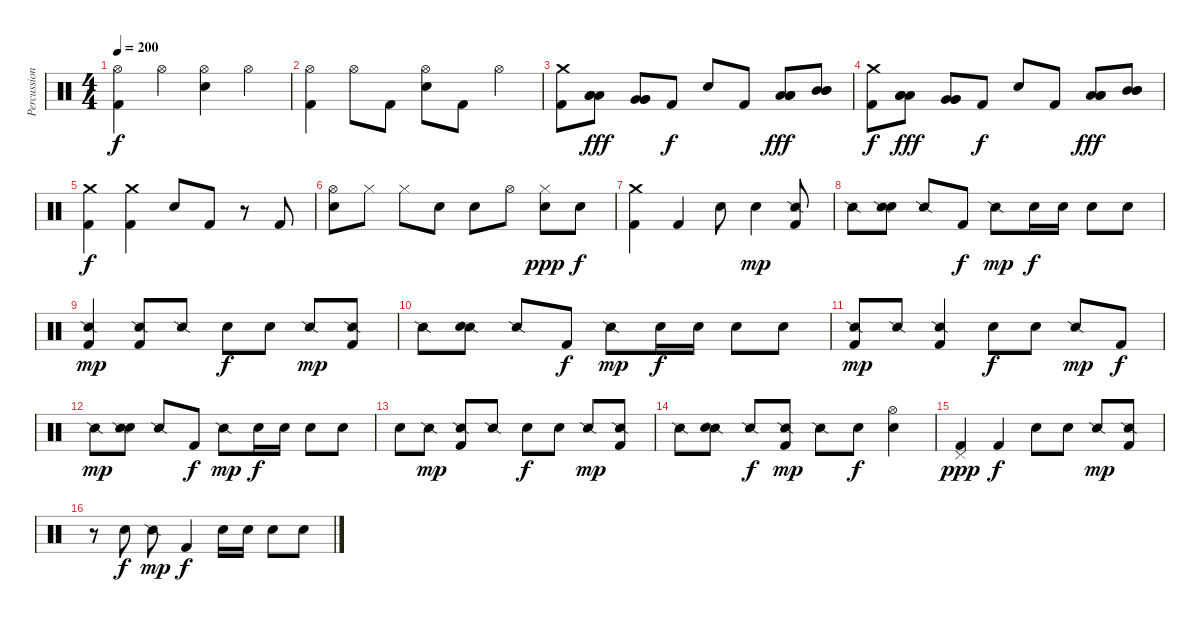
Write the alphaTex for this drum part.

\track ("Percussion" "Percussion") {instrument percussion}
\staff {score}
\articulation defaults
\ts (4 4)
\tempo 200
\clef neutral
\ks c
("Hi-Hat (open)" "Kick (hit) 2").4{dy f volume 15 balance 8} "Hi-Hat (open)".4 ("Hi-Hat (open)" "Electric Snare (hit)").4 "Hi-Hat (open)".4 |
("Hi-Hat (open)" "Kick (hit) 2").4 "Hi-Hat (open)".8 "Kick (hit) 2".8 ("Hi-Hat (open)" "Electric Snare (hit)").8 "Kick (hit) 2".8 "Hi-Hat (open)".4 |
("Crash medium (hit)" "Kick (hit) 2").8 ("Low Tom (hit)" "Low Tom (hit)" "Low Tom (hit)").8{dy fff balance 12} ("Very Low Tom (hit)" "Very Low Tom (hit)" "Very Low Tom (hit)").8{balance 4} "Kick (hit) 2".8{dy f balance 8} "Electric Snare (hit)".8 "Kick (hit) 2".8 ("Low Tom (hit)" "Low Tom (hit)" "Low Tom (hit)").8{dy fff balance 12} ("Mid Tom (hit)" "Mid Tom (hit)" "Mid Tom (hit)").8{balance 14} |
("Crash medium (hit)" "Kick (hit) 2").8{dy f} ("Low Tom (hit)" "Low Tom (hit)" "Low Tom (hit)").8{dy fff balance 12} ("Very Low Tom (hit)" "Very Low Tom (hit)" "Very Low Tom (hit)").8{balance 4} "Kick (hit) 2".8{dy f balance 8} "Electric Snare (hit)".8 "Kick (hit) 2".8 ("Low Tom (hit)" "Low Tom (hit)" "Low Tom (hit)").8{dy fff balance 12} ("Mid Tom (hit)" "Mid Tom (hit)" "Mid Tom (hit)").8{balance 14} |
("Crash medium (hit)" "Kick (hit) 2").4{dy f balance 8} ("Crash medium (hit)" "Kick (hit) 2").4 "Electric Snare (hit)".8 "Kick (hit) 2".8 r.8 "Kick (hit) 2".8 |
("Hi-Hat (open)" "Electric Snare (hit)").8 "Hi-Hat (closed)".8 "Hi-Hat (closed)".8 "Electric Snare (hit)".8 "Electric Snare (hit)".8 "Hi-Hat (open)".8 ("Hi-Hat (closed)" "Electric Snare (hit)").8{dy ppp} "Electric Snare (hit)".8{dy f} |
("Crash medium (hit)" "Kick (hit) 2").4 "Kick (hit) 2".4 "Electric Snare (hit)".8 "Electric Snare (hit)".4{dy mp} ("Snare (side stick) 2" "Kick (hit) 2").8 |
"Snare (side stick) 2".8 ("Electric Snare (hit)" "Snare (side stick) 2").8 "Snare (side stick) 2".8 "Kick (hit) 2".8{dy f} "Snare (side stick) 2".8{dy mp} "Electric Snare (hit)".16{dy f} "Electric Snare (hit)".16 "Electric Snare (hit)".8 "Electric Snare (hit)".8 |
("Snare (side stick) 2" "Kick (hit) 2").4{dy mp} ("Snare (side stick) 2" "Kick (hit) 2").8 "Snare (side stick) 2".8 "Electric Snare (hit)".8{dy f} "Electric Snare (hit)".8 "Snare (side stick) 2".8{dy mp} ("Kick (hit) 2" "Snare (side stick) 2").8 |
"Snare (side stick) 2".8 ("Snare (side stick) 2" "Electric Snare (hit)").8 "Snare (side stick) 2".8 "Kick (hit) 2".8{dy f} "Snare (side stick) 2".8{dy mp} "Electric Snare (hit)".16{dy f} "Electric Snare (hit)".16 "Electric Snare (hit)".8 "Electric Snare (hit)".8 |
("Snare (side stick) 2" "Kick (hit) 2").8{dy mp} "Snare (side stick) 2".8 ("Snare (side stick) 2" "Kick (hit) 2").4 "Electric Snare (hit)".8{dy f} "Electric Snare (hit)".8 "Snare (side stick) 2".8{dy mp} "Kick (hit) 2".8{dy f} |
"Snare (side stick) 2".8{dy mp} ("Electric Snare (hit)" "Snare (side stick) 2").8 "Snare (side stick) 2".8 "Kick (hit) 2".8{dy f} "Snare (side stick) 2".8{dy mp} "Electric Snare (hit)".16{dy f} "Electric Snare (hit)".16 "Electric Snare (hit)".8 "Electric Snare (hit)".8 |
"Electric Snare (hit)".8 "Snare (side stick) 2".8{dy mp} ("Snare (side stick) 2" "Kick (hit) 2").8 "Snare (side stick) 2".8 "Electric Snare (hit)".8{dy f} "Electric Snare (hit)".8 "Snare (side stick) 2".8{dy mp} ("Snare (side stick) 2" "Kick (hit) 2").8 |
"Snare (side stick) 2".8 ("Snare (side stick) 2" "Electric Snare (hit)").8 "Snare (side stick) 2".8{dy f} ("Snare (side stick) 2" "Kick (hit) 2").8{dy mp} "Snare (side stick) 2".8 "Electric Snare (hit)".8{dy f} ("Electric Snare (hit)" "Hi-Hat (open)").4 |
("Pedal Hi-Hat (hit)" "Kick (hit) 2").4{dy ppp} "Kick (hit) 2".4{dy f} "Electric Snare (hit)".8 "Electric Snare (hit)".8 "Snare (side stick) 2".8{dy mp} ("Kick (hit) 2" "Snare (side stick) 2").8 |
r.8 "Electric Snare (hit)".8{dy f} "Snare (side stick) 2".8{dy mp} "Kick (hit) 2".4{dy f} "Electric Snare (hit)".16 "Electric Snare (hit)".16 "Electric Snare (hit)".8 "Electric Snare (hit)".8
